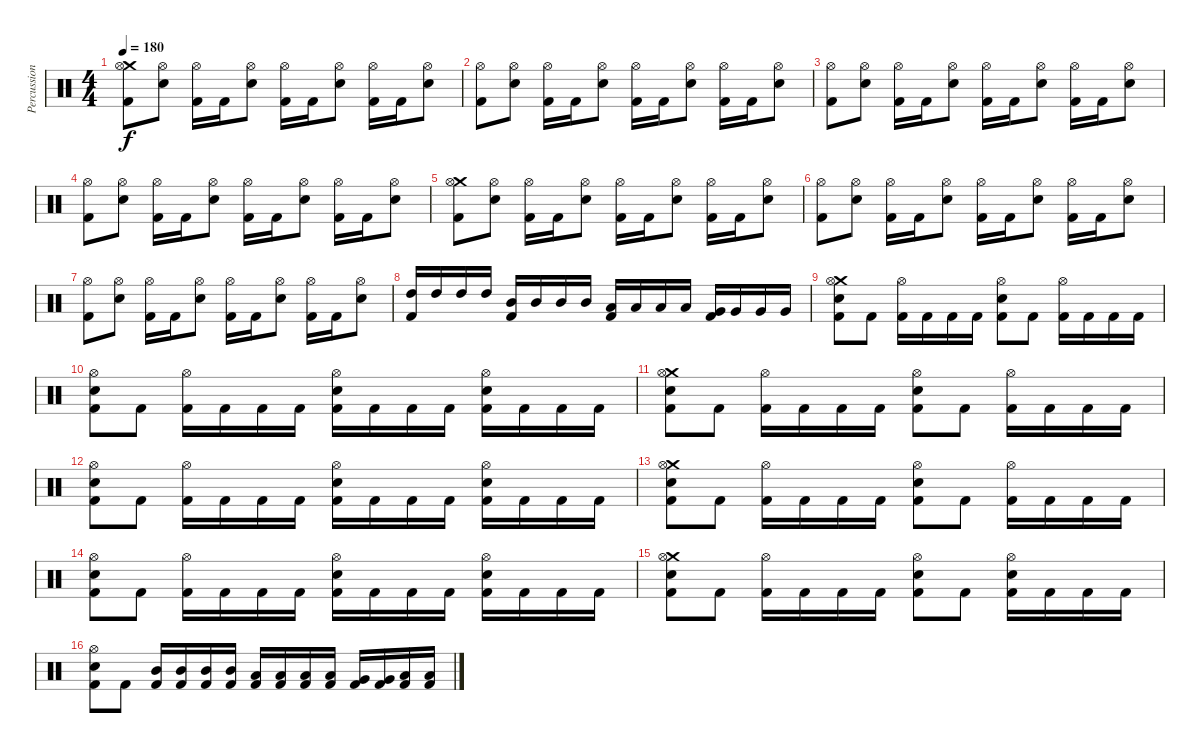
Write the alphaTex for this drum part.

\track ("Percussion" "Percussion") {instrument percussion}
\staff {score}
\articulation defaults
\ts (4 4)
\tempo 180
\clef neutral
\ks c
("Crash medium (hit)" "Hi-Hat (open)" "Kick (hit) 2").8{dy f} ("Hi-Hat (open)" "Snare (hit) 2").8 ("Hi-Hat (open)" "Kick (hit) 2").16 "Kick (hit) 2".16 ("Hi-Hat (open)" "Snare (hit) 2").8 ("Hi-Hat (open)" "Kick (hit) 2").16 "Kick (hit) 2".16 ("Hi-Hat (open)" "Snare (hit) 2").8 ("Hi-Hat (open)" "Kick (hit) 2").16 "Kick (hit) 2".16 ("Hi-Hat (open)" "Snare (hit) 2").8 |
("Hi-Hat (open)" "Kick (hit) 2").8 ("Hi-Hat (open)" "Snare (hit) 2").8 ("Hi-Hat (open)" "Kick (hit) 2").16 "Kick (hit) 2".16 ("Hi-Hat (open)" "Snare (hit) 2").8 ("Hi-Hat (open)" "Kick (hit) 2").16 "Kick (hit) 2".16 ("Hi-Hat (open)" "Snare (hit) 2").8 ("Hi-Hat (open)" "Kick (hit) 2").16 "Kick (hit) 2".16 ("Hi-Hat (open)" "Snare (hit) 2").8 |
("Hi-Hat (open)" "Kick (hit) 2").8 ("Hi-Hat (open)" "Snare (hit) 2").8 ("Hi-Hat (open)" "Kick (hit) 2").16 "Kick (hit) 2".16 ("Hi-Hat (open)" "Snare (hit) 2").8 ("Hi-Hat (open)" "Kick (hit) 2").16 "Kick (hit) 2".16 ("Hi-Hat (open)" "Snare (hit) 2").8 ("Hi-Hat (open)" "Kick (hit) 2").16 "Kick (hit) 2".16 ("Hi-Hat (open)" "Snare (hit) 2").8 |
("Hi-Hat (open)" "Kick (hit) 2").8 ("Hi-Hat (open)" "Snare (hit) 2").8 ("Hi-Hat (open)" "Kick (hit) 2").16 "Kick (hit) 2".16 ("Hi-Hat (open)" "Snare (hit) 2").8 ("Hi-Hat (open)" "Kick (hit) 2").16 "Kick (hit) 2".16 ("Hi-Hat (open)" "Snare (hit) 2").8 ("Hi-Hat (open)" "Kick (hit) 2").16 "Kick (hit) 2".16 ("Hi-Hat (open)" "Snare (hit) 2").8 |
("Crash medium (hit)" "Hi-Hat (open)" "Kick (hit) 2").8 ("Hi-Hat (open)" "Snare (hit) 2").8 ("Hi-Hat (open)" "Kick (hit) 2").16 "Kick (hit) 2".16 ("Hi-Hat (open)" "Snare (hit) 2").8 ("Hi-Hat (open)" "Kick (hit) 2").16 "Kick (hit) 2".16 ("Hi-Hat (open)" "Snare (hit) 2").8 ("Hi-Hat (open)" "Kick (hit) 2").16 "Kick (hit) 2".16 ("Hi-Hat (open)" "Snare (hit) 2").8 |
("Hi-Hat (open)" "Kick (hit) 2").8 ("Hi-Hat (open)" "Snare (hit) 2").8 ("Hi-Hat (open)" "Kick (hit) 2").16 "Kick (hit) 2".16 ("Hi-Hat (open)" "Snare (hit) 2").8 ("Hi-Hat (open)" "Kick (hit) 2").16 "Kick (hit) 2".16 ("Hi-Hat (open)" "Snare (hit) 2").8 ("Hi-Hat (open)" "Kick (hit) 2").16 "Kick (hit) 2".16 ("Hi-Hat (open)" "Snare (hit) 2").8 |
("Hi-Hat (open)" "Kick (hit) 2").8 ("Hi-Hat (open)" "Snare (hit) 2").8 ("Hi-Hat (open)" "Kick (hit) 2").16 "Kick (hit) 2".16 ("Hi-Hat (open)" "Snare (hit) 2").8 ("Hi-Hat (open)" "Kick (hit) 2").16 "Kick (hit) 2".16 ("Hi-Hat (open)" "Snare (hit) 2").8 ("Hi-Hat (open)" "Kick (hit) 2").16 "Kick (hit) 2".16 ("Hi-Hat (open)" "Snare (hit) 2").8 |
("High Tom (hit)" "Kick (hit) 2").16 "High Tom (hit)".16 "High Tom (hit)".16 "High Tom (hit)".16 ("Mid Tom (hit)" "Kick (hit) 2").16 "Mid Tom (hit)".16 "Mid Tom (hit)".16 "Mid Tom (hit)".16 ("Low Tom (hit)" "Kick (hit) 2").16 "Low Tom (hit)".16 "Low Tom (hit)".16 "Low Tom (hit)".16 ("Very Low Tom (hit)" "Kick (hit) 2").16 "Very Low Tom (hit)".16 "Very Low Tom (hit)".16 "Very Low Tom (hit)".16 |
("Crash medium (hit)" "Hi-Hat (open)" "Snare (hit) 2" "Kick (hit) 2").8 "Kick (hit) 2".8 ("Hi-Hat (open)" "Kick (hit) 2").16 "Kick (hit) 2".16 "Kick (hit) 2".16 "Kick (hit) 2".16 ("Hi-Hat (open)" "Snare (hit) 2" "Kick (hit) 2").8 "Kick (hit) 2".8 ("Hi-Hat (open)" "Kick (hit) 2").16 "Kick (hit) 2".16 "Kick (hit) 2".16 "Kick (hit) 2".16 |
("Hi-Hat (open)" "Snare (hit) 2" "Kick (hit) 2").8 "Kick (hit) 2".8 ("Hi-Hat (open)" "Kick (hit) 2").16 "Kick (hit) 2".16 "Kick (hit) 2".16 "Kick (hit) 2".16 ("Hi-Hat (open)" "Snare (hit) 2" "Kick (hit) 2").16 "Kick (hit) 2".16 "Kick (hit) 2".16 "Kick (hit) 2".16 ("Hi-Hat (open)" "Snare (hit) 2" "Kick (hit) 2").16 "Kick (hit) 2".16 "Kick (hit) 2".16 "Kick (hit) 2".16 |
("Crash medium (hit)" "Hi-Hat (open)" "Snare (hit) 2" "Kick (hit) 2").8 "Kick (hit) 2".8 ("Hi-Hat (open)" "Kick (hit) 2").16 "Kick (hit) 2".16 "Kick (hit) 2".16 "Kick (hit) 2".16 ("Hi-Hat (open)" "Snare (hit) 2" "Kick (hit) 2").8 "Kick (hit) 2".8 ("Hi-Hat (open)" "Kick (hit) 2").16 "Kick (hit) 2".16 "Kick (hit) 2".16 "Kick (hit) 2".16 |
("Hi-Hat (open)" "Snare (hit) 2" "Kick (hit) 2").8 "Kick (hit) 2".8 ("Hi-Hat (open)" "Kick (hit) 2").16 "Kick (hit) 2".16 "Kick (hit) 2".16 "Kick (hit) 2".16 ("Hi-Hat (open)" "Snare (hit) 2" "Kick (hit) 2").16 "Kick (hit) 2".16 "Kick (hit) 2".16 "Kick (hit) 2".16 ("Hi-Hat (open)" "Snare (hit) 2" "Kick (hit) 2").16 "Kick (hit) 2".16 "Kick (hit) 2".16 "Kick (hit) 2".16 |
("Crash medium (hit)" "Hi-Hat (open)" "Snare (hit) 2" "Kick (hit) 2").8 "Kick (hit) 2".8 ("Hi-Hat (open)" "Kick (hit) 2").16 "Kick (hit) 2".16 "Kick (hit) 2".16 "Kick (hit) 2".16 ("Hi-Hat (open)" "Snare (hit) 2" "Kick (hit) 2").8 "Kick (hit) 2".8 ("Hi-Hat (open)" "Kick (hit) 2").16 "Kick (hit) 2".16 "Kick (hit) 2".16 "Kick (hit) 2".16 |
("Hi-Hat (open)" "Snare (hit) 2" "Kick (hit) 2").8 "Kick (hit) 2".8 ("Hi-Hat (open)" "Kick (hit) 2").16 "Kick (hit) 2".16 "Kick (hit) 2".16 "Kick (hit) 2".16 ("Hi-Hat (open)" "Snare (hit) 2" "Kick (hit) 2").16 "Kick (hit) 2".16 "Kick (hit) 2".16 "Kick (hit) 2".16 ("Hi-Hat (open)" "Snare (hit) 2" "Kick (hit) 2").16 "Kick (hit) 2".16 "Kick (hit) 2".16 "Kick (hit) 2".16 |
("Crash medium (hit)" "Hi-Hat (open)" "Snare (hit) 2" "Kick (hit) 2").8 "Kick (hit) 2".8 ("Hi-Hat (open)" "Kick (hit) 2").16 "Kick (hit) 2".16 "Kick (hit) 2".16 "Kick (hit) 2".16 ("Hi-Hat (open)" "Snare (hit) 2" "Kick (hit) 2").8 "Kick (hit) 2".8 ("Hi-Hat (open)" "Snare (hit) 2" "Kick (hit) 2").16 "Kick (hit) 2".16 "Kick (hit) 2".16 "Kick (hit) 2".16 |
("Hi-Hat (open)" "Snare (hit) 2" "Kick (hit) 2").8 "Kick (hit) 2".8 ("Mid Tom (hit)" "Kick (hit) 2").16 ("Mid Tom (hit)" "Kick (hit) 2").16 ("Mid Tom (hit)" "Kick (hit) 2").16 ("Mid Tom (hit)" "Kick (hit) 2").16 ("Low Tom (hit)" "Kick (hit) 2").16 ("Low Tom (hit)" "Kick (hit) 2").16 ("Low Tom (hit)" "Kick (hit) 2").16 ("Low Tom (hit)" "Kick (hit) 2").16 ("Very Low Tom (hit)" "Kick (hit) 2").16 ("Very Low Tom (hit)" "Kick (hit) 2").16 ("Low Floor Tom (hit)" "Kick (hit) 2").16 ("Low Floor Tom (hit)" "Kick (hit) 2").16
